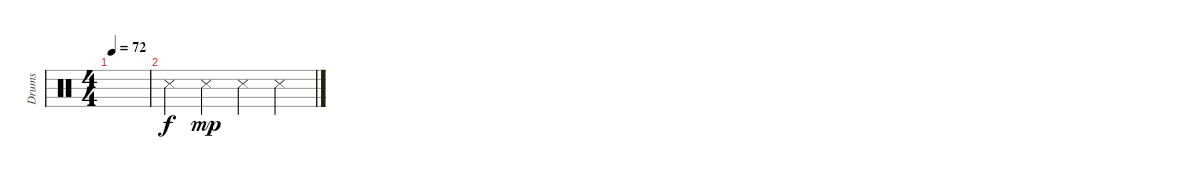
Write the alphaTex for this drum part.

\track ("Drums" "Drums") {instrument percussion}
\staff {score}
\articulation defaults
\ts (4 4)
\tempo 72
\clef neutral
\ks c
|
"Snare (side stick) 3".4 "Snare (side stick) 3".4{dy mp} "Snare (side stick) 3".4 "Snare (side stick) 3".4
